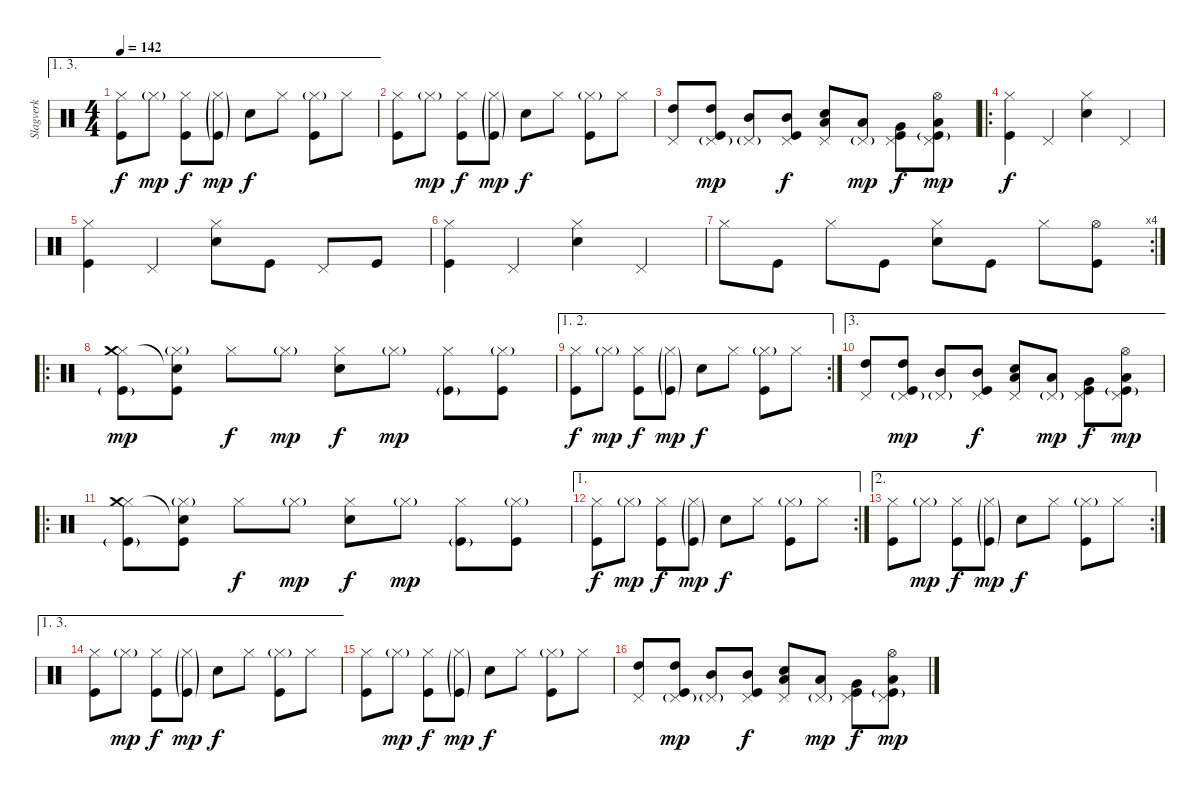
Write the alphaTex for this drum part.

\track ("Slagverk" "Slagverk") {instrument percussion}
\staff {score}
\articulation defaults
\ae (1 3)
\ts (4 4)
\tempo 142
\clef neutral
\ks c
("Hi-Hat (closed)" "Kick (hit)").8{dy f} "Hi-Hat (closed)"{g}.8{dy mp} ("Hi-Hat (closed)" "Kick (hit)").8{dy f} ("Hi-Hat (closed)"{g} "Kick (hit)"{g}).8{dy mp} "Snare (hit) 2".8{dy f} "Hi-Hat (closed)".8 ("Hi-Hat (closed)"{g} "Kick (hit)").8 "Hi-Hat (closed)".8 |
("Hi-Hat (closed)" "Kick (hit)").8 "Hi-Hat (closed)"{g}.8{dy mp} ("Hi-Hat (closed)" "Kick (hit)").8{dy f} ("Hi-Hat (closed)"{g} "Kick (hit)"{g}).8{dy mp} "Snare (hit) 2".8{dy f} "Hi-Hat (closed)".8 ("Hi-Hat (closed)"{g} "Kick (hit)").8 "Hi-Hat (closed)".8 |
("High Tom (hit)" "Pedal Hi-Hat (hit)").8 ("High Tom (hit)" "Pedal Hi-Hat (hit)"{g} "Kick (hit)").8{dy mp} ("Mid Tom (hit)" "Pedal Hi-Hat (hit)"{g}).8 ("Mid Tom (hit)" "Pedal Hi-Hat (hit)" "Kick (hit)").8{dy f} ("Low Tom (hit)" "Pedal Hi-Hat (hit)" "Snare (hit) 2").8 ("Low Tom (hit)" "Pedal Hi-Hat (hit)"{g}).8{dy mp} ("Very Low Tom (hit)" "Pedal Hi-Hat (hit)" "Kick (hit)").8{dy f} ("Low Floor Tom (hit)" "Pedal Hi-Hat (hit)" "Hi-Hat (open)" "Kick (hit)"{g}).8{dy mp} |
\ro
("Hi-Hat (closed)" "Kick (hit)").4{dy f} "Pedal Hi-Hat (hit)".4 ("Hi-Hat (closed)" "Snare (hit) 2").4 "Pedal Hi-Hat (hit)".4 |
("Hi-Hat (closed)" "Kick (hit)").4 "Pedal Hi-Hat (hit)".4 ("Hi-Hat (closed)" "Snare (hit) 2").8 "Kick (hit)".8 "Pedal Hi-Hat (hit)".8 "Kick (hit)".8 |
("Hi-Hat (closed)" "Kick (hit)").4 "Pedal Hi-Hat (hit)".4 ("Hi-Hat (closed)" "Snare (hit) 2").4 "Pedal Hi-Hat (hit)".4 |
\rc 4 "Hi-Hat (closed)".8 "Kick (hit)".8 "Hi-Hat (closed)".8 "Kick (hit)".8
("Hi-Hat (closed)" "Snare (hit) 2").8 "Kick (hit)".8 "Hi-Hat (closed)".8 ("Hi-Hat (open)" "Kick (hit)").8 |
\ro
("Hi-Hat (closed)" "Crash medium (hit)" "Kick (hit)"{g}).8{dy mp} ("Hi-Hat (closed)"{g} "Snare (hit)"{t} "Kick (hit)").8 "Hi-Hat (closed)".8{dy f} "Hi-Hat (closed)"{g}.8{dy mp} ("Hi-Hat (closed)" "Snare (hit) 2").8{dy f} "Hi-Hat (closed)"{g}.8{dy mp} ("Hi-Hat (closed)" "Kick (hit)"{g}).8 ("Hi-Hat (closed)"{g} "Kick (hit)").8 |
\ae (1 2)
\rc 2
("Hi-Hat (closed)" "Kick (hit)").8{dy f} "Hi-Hat (closed)"{g}.8{dy mp} ("Hi-Hat (closed)" "Kick (hit)").8{dy f} ("Hi-Hat (closed)"{g} "Kick (hit)"{g}).8{dy mp} "Snare (hit) 2".8{dy f} "Hi-Hat (closed)".8 ("Hi-Hat (closed)"{g} "Kick (hit)").8 "Hi-Hat (closed)".8 |
\ae 3
("High Tom (hit)" "Pedal Hi-Hat (hit)").8 ("High Tom (hit)" "Pedal Hi-Hat (hit)"{g} "Kick (hit)").8{dy mp} ("Mid Tom (hit)" "Pedal Hi-Hat (hit)"{g}).8 ("Mid Tom (hit)" "Pedal Hi-Hat (hit)" "Kick (hit)").8{dy f} ("Low Tom (hit)" "Pedal Hi-Hat (hit)" "Snare (hit) 2").8 ("Low Tom (hit)" "Pedal Hi-Hat (hit)"{g}).8{dy mp} ("Very Low Tom (hit)" "Pedal Hi-Hat (hit)" "Kick (hit)").8{dy f} ("Low Floor Tom (hit)" "Pedal Hi-Hat (hit)" "Hi-Hat (open)" "Kick (hit)"{g}).8{dy mp} |
\ro
("Hi-Hat (closed)" "Crash medium (hit)" "Kick (hit)"{g}).8 ("Hi-Hat (closed)"{g} "Snare (hit)"{t} "Kick (hit)").8 "Hi-Hat (closed)".8{dy f} "Hi-Hat (closed)"{g}.8{dy mp} ("Hi-Hat (closed)" "Snare (hit) 2").8{dy f} "Hi-Hat (closed)"{g}.8{dy mp} ("Hi-Hat (closed)" "Kick (hit)"{g}).8 ("Hi-Hat (closed)"{g} "Kick (hit)").8 |
\ae 1
\rc 2
("Hi-Hat (closed)" "Kick (hit)").8{dy f} "Hi-Hat (closed)"{g}.8{dy mp} ("Hi-Hat (closed)" "Kick (hit)").8{dy f} ("Hi-Hat (closed)"{g} "Kick (hit)"{g}).8{dy mp} "Snare (hit) 2".8{dy f} "Hi-Hat (closed)".8 ("Hi-Hat (closed)"{g} "Kick (hit)").8 "Hi-Hat (closed)".8 |
\ae 2
\rc 2
("Hi-Hat (closed)" "Kick (hit)").8 "Hi-Hat (closed)"{g}.8{dy mp} ("Hi-Hat (closed)" "Kick (hit)").8{dy f} ("Hi-Hat (closed)"{g} "Kick (hit)"{g}).8{dy mp} "Snare (hit) 2".8{dy f} "Hi-Hat (closed)".8 ("Hi-Hat (closed)"{g} "Kick (hit)").8 "Hi-Hat (closed)".8 |
\ae (1 3)
("Hi-Hat (closed)" "Kick (hit)").8 "Hi-Hat (closed)"{g}.8{dy mp} ("Hi-Hat (closed)" "Kick (hit)").8{dy f} ("Hi-Hat (closed)"{g} "Kick (hit)"{g}).8{dy mp} "Snare (hit) 2".8{dy f} "Hi-Hat (closed)".8 ("Hi-Hat (closed)"{g} "Kick (hit)").8 "Hi-Hat (closed)".8 |
("Hi-Hat (closed)" "Kick (hit)").8 "Hi-Hat (closed)"{g}.8{dy mp} ("Hi-Hat (closed)" "Kick (hit)").8{dy f} ("Hi-Hat (closed)"{g} "Kick (hit)"{g}).8{dy mp} "Snare (hit) 2".8{dy f} "Hi-Hat (closed)".8 ("Hi-Hat (closed)"{g} "Kick (hit)").8 "Hi-Hat (closed)".8 |
("High Tom (hit)" "Pedal Hi-Hat (hit)").8 ("High Tom (hit)" "Pedal Hi-Hat (hit)"{g} "Kick (hit)").8{dy mp} ("Mid Tom (hit)" "Pedal Hi-Hat (hit)"{g}).8 ("Mid Tom (hit)" "Pedal Hi-Hat (hit)" "Kick (hit)").8{dy f} ("Low Tom (hit)" "Pedal Hi-Hat (hit)" "Snare (hit) 2").8 ("Low Tom (hit)" "Pedal Hi-Hat (hit)"{g}).8{dy mp} ("Very Low Tom (hit)" "Pedal Hi-Hat (hit)" "Kick (hit)").8{dy f} ("Low Floor Tom (hit)" "Pedal Hi-Hat (hit)" "Hi-Hat (open)" "Kick (hit)"{g}).8{dy mp}
